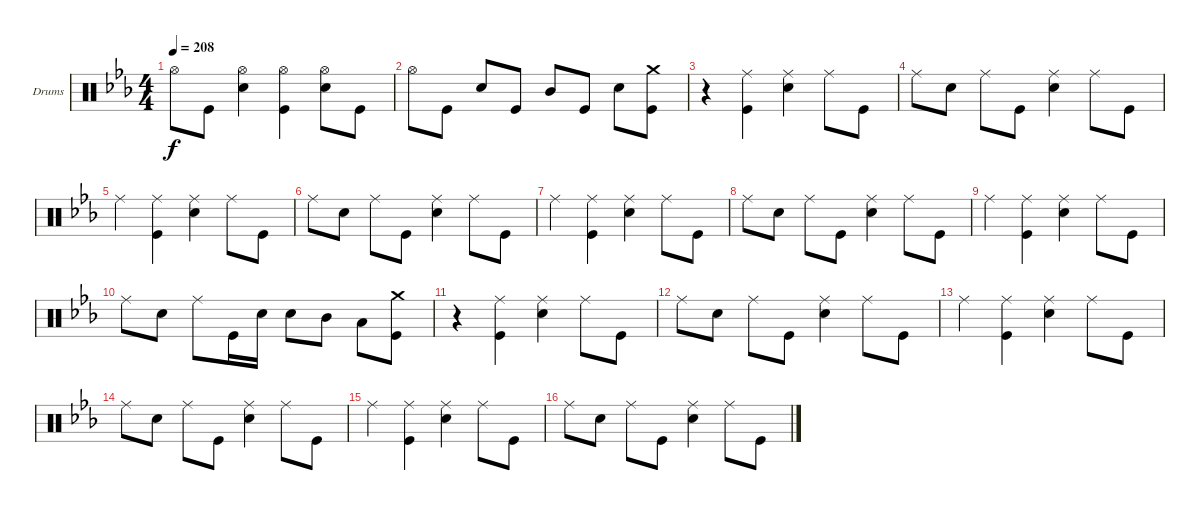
\defaultSystemsLayout 4
\bracketExtendMode groupsimilarinstruments
\firstSystemTrackNameOrientation horizontal
\otherSystemsTrackNameOrientation horizontal
\track ("Drumkit" "Drums") {instrument percussion}
\staff {score}
\articulation defaults
\ts (4 4)
\tempo 208
\clef neutral
\ks eb "Hi-Hat (open)".8{dy f} "Kick (hit)".8
("Hi-Hat (open)" "Snare (hit) 2").4 ("Hi-Hat (open)" "Kick (hit)").4 ("Hi-Hat (open)" "Snare (hit) 2").8 "Kick (hit)".8 |
"Hi-Hat (open)".8 "Kick (hit)".8 "Snare (hit) 2".8 "Kick (hit)".8 "Mid Tom (hit)".8 "Kick (hit)".8 "Snare (hit) 2".8 ("Crash medium (hit)" "Kick (hit)").8 |
r.4 ("Ride (middle)" "Kick (hit)").4 ("Ride (middle)" "Snare (hit) 2").4 "Ride (middle)".8 "Kick (hit)".8 |
"Ride (middle)".8 "Snare (hit) 2".8 "Ride (middle)".8 "Kick (hit)".8 ("Ride (middle)" "Snare (hit) 2").4 "Ride (middle)".8 "Kick (hit)".8 |
"Ride (middle)".4 ("Ride (middle)" "Kick (hit)").4 ("Ride (middle)" "Snare (hit) 2").4 "Ride (middle)".8 "Kick (hit)".8 |
"Ride (middle)".8 "Snare (hit) 2".8 "Ride (middle)".8 "Kick (hit)".8 ("Ride (middle)" "Snare (hit) 2").4 "Ride (middle)".8 "Kick (hit)".8 |
"Ride (middle)".4 ("Ride (middle)" "Kick (hit)").4 ("Ride (middle)" "Snare (hit) 2").4 "Ride (middle)".8 "Kick (hit)".8 |
"Ride (middle)".8 "Snare (hit) 2".8 "Ride (middle)".8 "Kick (hit)".8 ("Ride (middle)" "Snare (hit) 2").4 "Ride (middle)".8 "Kick (hit)".8 |
"Ride (middle)".4 ("Ride (middle)" "Kick (hit)").4 ("Ride (middle)" "Snare (hit) 2").4 "Ride (middle)".8 "Kick (hit)".8 |
"Ride (middle)".8 "Snare (hit) 2".8 "Ride (middle)".8 "Kick (hit)".16 "Snare (hit) 2".16 "Snare (hit) 2".8 "Mid Tom (hit)".8 "Low Tom (hit)".8 ("Crash medium (hit)" "Kick (hit)").8 |
r.4 ("Ride (middle)" "Kick (hit)").4 ("Ride (middle)" "Snare (hit) 2").4 "Ride (middle)".8 "Kick (hit)".8 |
"Ride (middle)".8 "Snare (hit) 2".8 "Ride (middle)".8 "Kick (hit)".8 ("Ride (middle)" "Snare (hit) 2").4 "Ride (middle)".8 "Kick (hit)".8 |
"Ride (middle)".4 ("Ride (middle)" "Kick (hit)").4 ("Ride (middle)" "Snare (hit) 2").4 "Ride (middle)".8 "Kick (hit)".8 |
"Ride (middle)".8 "Snare (hit) 2".8 "Ride (middle)".8 "Kick (hit)".8 ("Ride (middle)" "Snare (hit) 2").4 "Ride (middle)".8 "Kick (hit)".8 |
"Ride (middle)".4 ("Ride (middle)" "Kick (hit)").4 ("Ride (middle)" "Snare (hit) 2").4 "Ride (middle)".8 "Kick (hit)".8 |
"Ride (middle)".8 "Snare (hit) 2".8 "Ride (middle)".8 "Kick (hit)".8 ("Ride (middle)" "Snare (hit) 2").4 "Ride (middle)".8 "Kick (hit)".8
